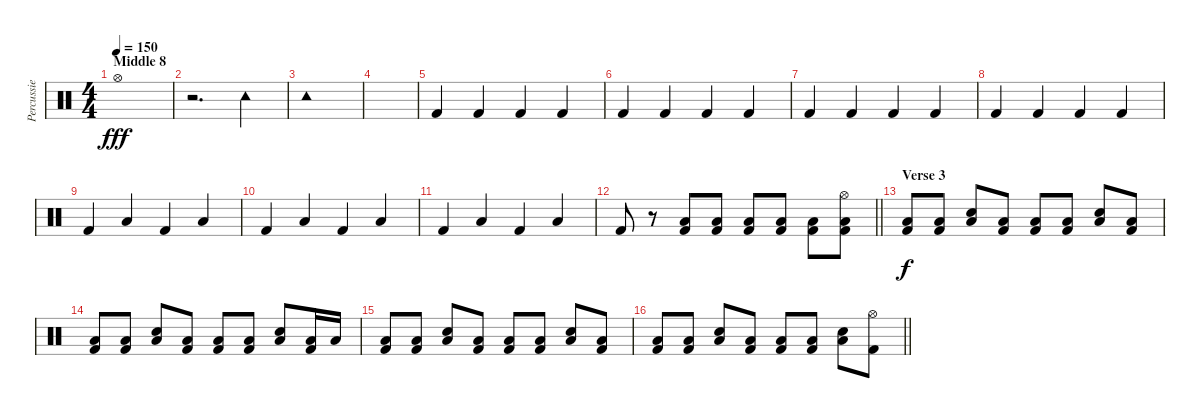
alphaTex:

\track ("Percussie" "Percussie") {instrument percussion}
\staff {score}
\articulation defaults
\ts (4 4)
\section ("" "Middle 8")
\tempo 150
\clef neutral
\ks c "Hi-Hat (open)".1{dy fff volume 0}
|
r.2{d} "Tambourine (hit)".4{volume 11} |
"Tambourine (hit)".1 |
|
"Kick (hit) 2".4 "Kick (hit) 2".4 "Kick (hit) 2".4 "Kick (hit) 2".4 |
"Kick (hit) 2".4 "Kick (hit) 2".4 "Kick (hit) 2".4 "Kick (hit) 2".4 |
"Kick (hit) 2".4 "Kick (hit) 2".4 "Kick (hit) 2".4 "Kick (hit) 2".4 |
"Kick (hit) 2".4 "Kick (hit) 2".4 "Kick (hit) 2".4 "Kick (hit) 2".4 |
"Kick (hit) 2".4 "Low Floor Tom (hit)".4 "Kick (hit) 2".4 "Low Floor Tom (hit)".4 |
"Kick (hit) 2".4 "Low Floor Tom (hit)".4 "Kick (hit) 2".4 "Low Floor Tom (hit)".4 |
"Kick (hit) 2".4 "Low Floor Tom (hit)".4 "Kick (hit) 2".4 "Low Floor Tom (hit)".4 |
\barLineRight lightlight "Kick (hit) 2".8
r.8{volume 0} ("Low Floor Tom (hit)" "Kick (hit) 2").8{volume 11} ("Low Floor Tom (hit)" "Kick (hit) 2").8 ("Low Floor Tom (hit)" "Kick (hit) 2").8 ("Low Floor Tom (hit)" "Kick (hit) 2").8 ("Low Floor Tom (hit)" "Kick (hit) 2").8 ("Hi-Hat (open)" "Low Floor Tom (hit)" "Kick (hit) 2").8 |
\section ("" "Verse 3")
("Low Floor Tom (hit)" "Kick (hit) 2").8{dy f} ("Low Floor Tom (hit)" "Kick (hit) 2").8 ("Snare (hit) 2" "Low Floor Tom (hit)").8 ("Low Floor Tom (hit)" "Kick (hit) 2").8 ("Low Floor Tom (hit)" "Kick (hit) 2").8 ("Low Floor Tom (hit)" "Kick (hit) 2").8 ("Snare (hit) 2" "Low Floor Tom (hit)").8 ("Low Floor Tom (hit)" "Kick (hit) 2").8 |
("Low Floor Tom (hit)" "Kick (hit) 2").8 ("Low Floor Tom (hit)" "Kick (hit) 2").8 ("Snare (hit) 2" "Low Floor Tom (hit)").8 ("Low Floor Tom (hit)" "Kick (hit) 2").8 ("Low Floor Tom (hit)" "Kick (hit) 2").8 ("Low Floor Tom (hit)" "Kick (hit) 2").8 ("Snare (hit) 2" "Low Floor Tom (hit)").8 ("Low Floor Tom (hit)" "Kick (hit) 2").16 "Low Floor Tom (hit)".16 |
("Low Floor Tom (hit)" "Kick (hit) 2").8 ("Low Floor Tom (hit)" "Kick (hit) 2").8 ("Snare (hit) 2" "Low Floor Tom (hit)").8 ("Low Floor Tom (hit)" "Kick (hit) 2").8 ("Low Floor Tom (hit)" "Kick (hit) 2").8 ("Low Floor Tom (hit)" "Kick (hit) 2").8 ("Snare (hit) 2" "Low Floor Tom (hit)").8 ("Low Floor Tom (hit)" "Kick (hit) 2").8 |
\barLineRight lightlight
("Low Floor Tom (hit)" "Kick (hit) 2").8 ("Low Floor Tom (hit)" "Kick (hit) 2").8 ("Snare (hit) 2" "Low Floor Tom (hit)").8 ("Low Floor Tom (hit)" "Kick (hit) 2").8 ("Low Floor Tom (hit)" "Kick (hit) 2").8 ("Low Floor Tom (hit)" "Kick (hit) 2").8 ("Snare (hit) 2" "Low Floor Tom (hit)").8 ("Hi-Hat (open)" "Kick (hit) 2").8
